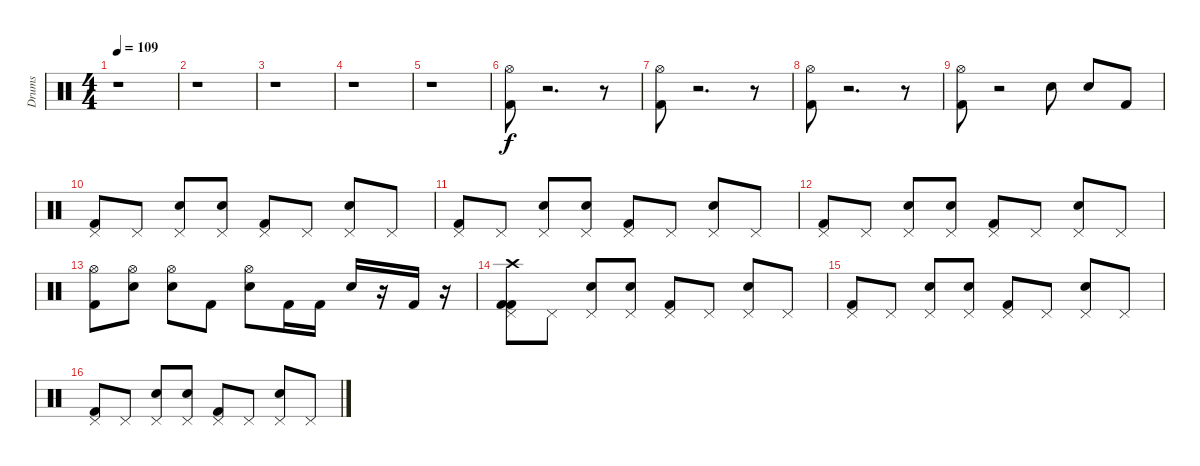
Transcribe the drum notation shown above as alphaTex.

\track ("Drums" "Drums") {instrument percussion}
\staff {score}
\articulation defaults
\ts (4 4)
\tempo 109
\clef neutral
\ks c
r.1{dy f} |
r.1 |
r.1 |
r.1 |
r.1 |
("Hi-Hat (open)" "Kick (hit) 2").8 r.2{d} r.8 |
("Hi-Hat (open)" "Kick (hit) 2").8 r.2{d} r.8 |
("Hi-Hat (open)" "Kick (hit) 2").8 r.2{d} r.8 |
("Hi-Hat (open)" "Kick (hit) 2").8 r.2 "Electric Snare (hit)".8 "Electric Snare (hit)".8 "Kick (hit) 2".8 |
("Pedal Hi-Hat (hit)" "Kick (hit) 2").8 "Pedal Hi-Hat (hit)".8 ("Pedal Hi-Hat (hit)" "Electric Snare (hit)").8 ("Pedal Hi-Hat (hit)" "Electric Snare (hit)").8 ("Pedal Hi-Hat (hit)" "Kick (hit) 2").8 "Pedal Hi-Hat (hit)".8 ("Pedal Hi-Hat (hit)" "Electric Snare (hit)").8 "Pedal Hi-Hat (hit)".8 |
("Pedal Hi-Hat (hit)" "Kick (hit) 2").8 "Pedal Hi-Hat (hit)".8 ("Pedal Hi-Hat (hit)" "Electric Snare (hit)").8 ("Pedal Hi-Hat (hit)" "Electric Snare (hit)").8 ("Pedal Hi-Hat (hit)" "Kick (hit) 2").8 "Pedal Hi-Hat (hit)".8 ("Pedal Hi-Hat (hit)" "Electric Snare (hit)").8 "Pedal Hi-Hat (hit)".8 |
("Pedal Hi-Hat (hit)" "Kick (hit) 2").8 "Pedal Hi-Hat (hit)".8 ("Pedal Hi-Hat (hit)" "Electric Snare (hit)").8 ("Pedal Hi-Hat (hit)" "Electric Snare (hit)").8 ("Pedal Hi-Hat (hit)" "Kick (hit) 2").8 "Pedal Hi-Hat (hit)".8 ("Electric Snare (hit)" "Pedal Hi-Hat (hit)").8 "Pedal Hi-Hat (hit)".8 |
("Hi-Hat (open)" "Kick (hit) 2").8 ("Hi-Hat (open)" "Electric Snare (hit)").8 ("Hi-Hat (open)" "Electric Snare (hit)").8 "Kick (hit) 2".8 ("Hi-Hat (open)" "Electric Snare (hit)").8 "Kick (hit) 2".16 "Kick (hit) 2".16 "Electric Snare (hit)".16 r.16 "Kick (hit) 2".16 r.16 |
("Crash high (hit)" "Kick (hit) 2" "Pedal Hi-Hat (hit)" "Kick (hit) 2").8 "Pedal Hi-Hat (hit)".8 ("Pedal Hi-Hat (hit)" "Electric Snare (hit)").8 ("Pedal Hi-Hat (hit)" "Electric Snare (hit)").8 ("Pedal Hi-Hat (hit)" "Kick (hit) 2").8 "Pedal Hi-Hat (hit)".8 ("Pedal Hi-Hat (hit)" "Electric Snare (hit)").8 "Pedal Hi-Hat (hit)".8 |
("Pedal Hi-Hat (hit)" "Kick (hit) 2").8 "Pedal Hi-Hat (hit)".8 ("Pedal Hi-Hat (hit)" "Electric Snare (hit)").8 ("Pedal Hi-Hat (hit)" "Electric Snare (hit)").8 ("Pedal Hi-Hat (hit)" "Kick (hit) 2").8 "Pedal Hi-Hat (hit)".8 ("Pedal Hi-Hat (hit)" "Electric Snare (hit)").8 "Pedal Hi-Hat (hit)".8 |
("Pedal Hi-Hat (hit)" "Kick (hit) 2").8 "Pedal Hi-Hat (hit)".8 ("Pedal Hi-Hat (hit)" "Electric Snare (hit)").8 ("Pedal Hi-Hat (hit)" "Electric Snare (hit)").8 ("Pedal Hi-Hat (hit)" "Kick (hit) 2").8 "Pedal Hi-Hat (hit)".8 ("Electric Snare (hit)" "Pedal Hi-Hat (hit)").8 "Pedal Hi-Hat (hit)".8
